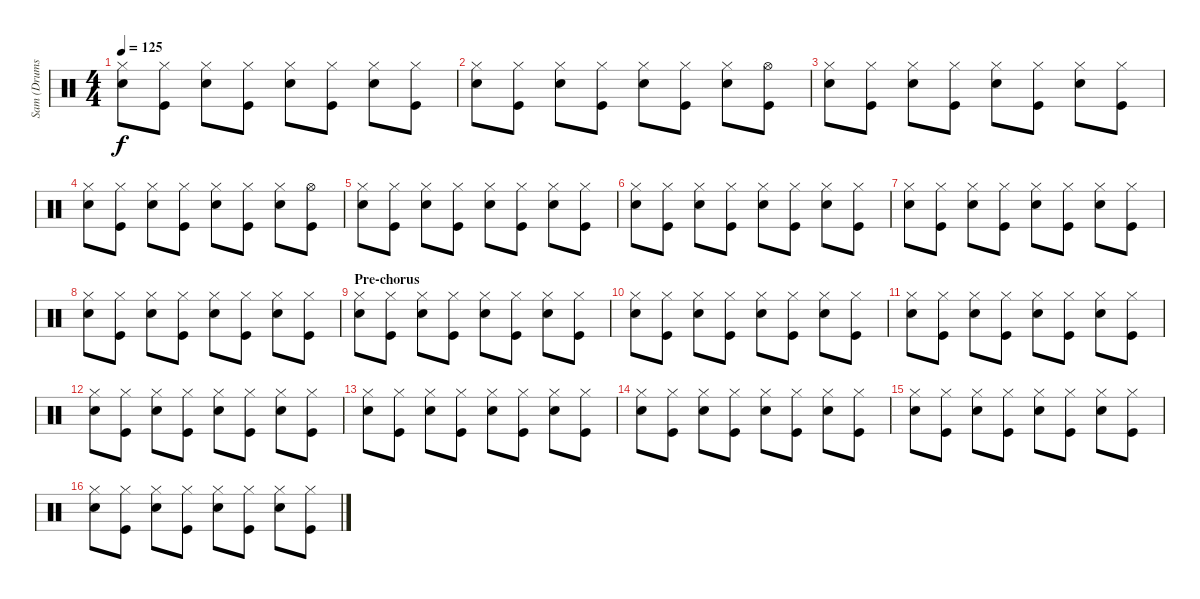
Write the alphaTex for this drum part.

\track ("Sam (Drums)" "Sam (Drums") {instrument percussion}
\staff {score}
\articulation defaults
\ts (4 4)
\tempo 125
\clef neutral
\ks c
("Hi-Hat (closed)" "Snare (hit) 2").8{dy f} ("Hi-Hat (closed)" "Kick (hit)").8 ("Hi-Hat (closed)" "Snare (hit) 2").8 ("Hi-Hat (closed)" "Kick (hit)").8 ("Hi-Hat (closed)" "Snare (hit) 2").8 ("Hi-Hat (closed)" "Kick (hit)").8 ("Hi-Hat (closed)" "Snare (hit) 2").8 ("Hi-Hat (closed)" "Kick (hit)").8 |
("Hi-Hat (closed)" "Snare (hit) 2").8 ("Hi-Hat (closed)" "Kick (hit)").8 ("Hi-Hat (closed)" "Snare (hit) 2").8 ("Hi-Hat (closed)" "Kick (hit)").8 ("Hi-Hat (closed)" "Snare (hit) 2").8 ("Hi-Hat (closed)" "Kick (hit)").8 ("Hi-Hat (closed)" "Snare (hit) 2").8 ("Hi-Hat (open)" "Kick (hit)").8 |
("Hi-Hat (closed)" "Snare (hit) 2").8 ("Hi-Hat (closed)" "Kick (hit)").8 ("Hi-Hat (closed)" "Snare (hit) 2").8 ("Hi-Hat (closed)" "Kick (hit)").8 ("Hi-Hat (closed)" "Snare (hit) 2").8 ("Hi-Hat (closed)" "Kick (hit)").8 ("Hi-Hat (closed)" "Snare (hit) 2").8 ("Hi-Hat (closed)" "Kick (hit)").8 |
("Hi-Hat (closed)" "Snare (hit) 2").8 ("Hi-Hat (closed)" "Kick (hit)").8 ("Hi-Hat (closed)" "Snare (hit) 2").8 ("Hi-Hat (closed)" "Kick (hit)").8 ("Hi-Hat (closed)" "Snare (hit) 2").8 ("Hi-Hat (closed)" "Kick (hit)").8 ("Hi-Hat (closed)" "Snare (hit) 2").8 ("Hi-Hat (open)" "Kick (hit)").8 |
("Hi-Hat (closed)" "Snare (hit) 2").8 ("Hi-Hat (closed)" "Kick (hit)").8 ("Hi-Hat (closed)" "Snare (hit) 2").8 ("Hi-Hat (closed)" "Kick (hit)").8 ("Hi-Hat (closed)" "Snare (hit) 2").8 ("Hi-Hat (closed)" "Kick (hit)").8 ("Hi-Hat (closed)" "Snare (hit) 2").8 ("Hi-Hat (closed)" "Kick (hit)").8 |
("Hi-Hat (closed)" "Snare (hit) 2").8 ("Hi-Hat (closed)" "Kick (hit)").8 ("Hi-Hat (closed)" "Snare (hit) 2").8 ("Hi-Hat (closed)" "Kick (hit)").8 ("Hi-Hat (closed)" "Snare (hit) 2").8 ("Hi-Hat (closed)" "Kick (hit)").8 ("Hi-Hat (closed)" "Snare (hit) 2").8 ("Hi-Hat (closed)" "Kick (hit)").8 |
("Hi-Hat (closed)" "Snare (hit) 2").8 ("Hi-Hat (closed)" "Kick (hit)").8 ("Hi-Hat (closed)" "Snare (hit) 2").8 ("Hi-Hat (closed)" "Kick (hit)").8 ("Hi-Hat (closed)" "Snare (hit) 2").8 ("Hi-Hat (closed)" "Kick (hit)").8 ("Hi-Hat (closed)" "Snare (hit) 2").8 ("Hi-Hat (closed)" "Kick (hit)").8 |
("Hi-Hat (closed)" "Snare (hit) 2").8 ("Hi-Hat (closed)" "Kick (hit)").8 ("Hi-Hat (closed)" "Snare (hit) 2").8 ("Hi-Hat (closed)" "Kick (hit)").8 ("Hi-Hat (closed)" "Snare (hit) 2").8 ("Hi-Hat (closed)" "Kick (hit)").8 ("Hi-Hat (closed)" "Snare (hit) 2").8 ("Hi-Hat (closed)" "Kick (hit)").8 |
\section ("" "Pre-chorus")
("Hi-Hat (closed)" "Snare (hit) 2").8 ("Hi-Hat (closed)" "Kick (hit)").8 ("Hi-Hat (closed)" "Snare (hit) 2").8 ("Hi-Hat (closed)" "Kick (hit)").8 ("Hi-Hat (closed)" "Snare (hit) 2").8 ("Hi-Hat (closed)" "Kick (hit)").8 ("Hi-Hat (closed)" "Snare (hit) 2").8 ("Hi-Hat (closed)" "Kick (hit)").8 |
("Hi-Hat (closed)" "Snare (hit) 2").8 ("Hi-Hat (closed)" "Kick (hit)").8 ("Hi-Hat (closed)" "Snare (hit) 2").8 ("Hi-Hat (closed)" "Kick (hit)").8 ("Hi-Hat (closed)" "Snare (hit) 2").8 ("Hi-Hat (closed)" "Kick (hit)").8 ("Hi-Hat (closed)" "Snare (hit) 2").8 ("Hi-Hat (closed)" "Kick (hit)").8 |
("Hi-Hat (closed)" "Snare (hit) 2").8 ("Hi-Hat (closed)" "Kick (hit)").8 ("Hi-Hat (closed)" "Snare (hit) 2").8 ("Hi-Hat (closed)" "Kick (hit)").8 ("Hi-Hat (closed)" "Snare (hit) 2").8 ("Hi-Hat (closed)" "Kick (hit)").8 ("Hi-Hat (closed)" "Snare (hit) 2").8 ("Hi-Hat (closed)" "Kick (hit)").8 |
("Hi-Hat (closed)" "Snare (hit) 2").8 ("Hi-Hat (closed)" "Kick (hit)").8 ("Hi-Hat (closed)" "Snare (hit) 2").8 ("Hi-Hat (closed)" "Kick (hit)").8 ("Hi-Hat (closed)" "Snare (hit) 2").8 ("Hi-Hat (closed)" "Kick (hit)").8 ("Hi-Hat (closed)" "Snare (hit) 2").8 ("Hi-Hat (closed)" "Kick (hit)").8 |
("Hi-Hat (closed)" "Snare (hit) 2").8 ("Hi-Hat (closed)" "Kick (hit)").8 ("Hi-Hat (closed)" "Snare (hit) 2").8 ("Hi-Hat (closed)" "Kick (hit)").8 ("Hi-Hat (closed)" "Snare (hit) 2").8 ("Hi-Hat (closed)" "Kick (hit)").8 ("Hi-Hat (closed)" "Snare (hit) 2").8 ("Hi-Hat (closed)" "Kick (hit)").8 |
("Hi-Hat (closed)" "Snare (hit) 2").8 ("Hi-Hat (closed)" "Kick (hit)").8 ("Hi-Hat (closed)" "Snare (hit) 2").8 ("Hi-Hat (closed)" "Kick (hit)").8 ("Hi-Hat (closed)" "Snare (hit) 2").8 ("Hi-Hat (closed)" "Kick (hit)").8 ("Hi-Hat (closed)" "Snare (hit) 2").8 ("Hi-Hat (closed)" "Kick (hit)").8 |
("Hi-Hat (closed)" "Snare (hit) 2").8 ("Hi-Hat (closed)" "Kick (hit)").8 ("Hi-Hat (closed)" "Snare (hit) 2").8 ("Hi-Hat (closed)" "Kick (hit)").8 ("Hi-Hat (closed)" "Snare (hit) 2").8 ("Hi-Hat (closed)" "Kick (hit)").8 ("Hi-Hat (closed)" "Snare (hit) 2").8 ("Hi-Hat (closed)" "Kick (hit)").8 |
("Hi-Hat (closed)" "Snare (hit) 2").8 ("Hi-Hat (closed)" "Kick (hit)").8 ("Hi-Hat (closed)" "Snare (hit) 2").8 ("Hi-Hat (closed)" "Kick (hit)").8 ("Hi-Hat (closed)" "Snare (hit) 2").8 ("Hi-Hat (closed)" "Kick (hit)").8 ("Hi-Hat (closed)" "Snare (hit) 2").8 ("Hi-Hat (closed)" "Kick (hit)").8
